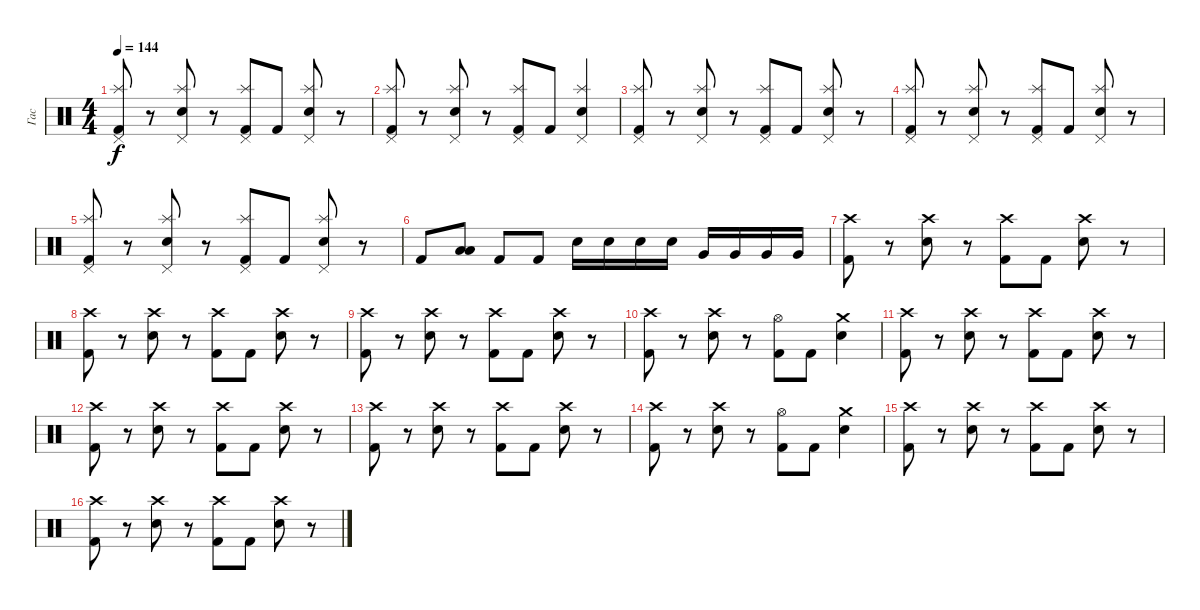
\track ("Гас" "Гас") {instrument percussion}
\staff {score}
\articulation defaults
\ts (4 4)
\tempo 144
\clef neutral
\ks c
("Pedal Hi-Hat (hit)" "Splash (hit)" "Kick (hit) 2").8{dy f} r.8 ("Pedal Hi-Hat (hit)" "Splash (hit)" "Electric Snare (hit)").8 r.8 ("Pedal Hi-Hat (hit)" "Splash (hit)" "Kick (hit) 2").8 "Kick (hit) 2".8 ("Pedal Hi-Hat (hit)" "Splash (hit)" "Electric Snare (hit)").8 r.8 |
("Pedal Hi-Hat (hit)" "Splash (hit)" "Kick (hit) 2").8 r.8 ("Pedal Hi-Hat (hit)" "Splash (hit)" "Electric Snare (hit)").8 r.8 ("Pedal Hi-Hat (hit)" "Splash (hit)" "Kick (hit) 2").8 "Kick (hit) 2".8 ("Pedal Hi-Hat (hit)" "Splash (hit)" "Electric Snare (hit)").4 |
("Pedal Hi-Hat (hit)" "Splash (hit)" "Kick (hit) 2").8 r.8 ("Pedal Hi-Hat (hit)" "Splash (hit)" "Electric Snare (hit)").8 r.8 ("Pedal Hi-Hat (hit)" "Splash (hit)" "Kick (hit) 2").8 "Kick (hit) 2".8 ("Pedal Hi-Hat (hit)" "Splash (hit)" "Electric Snare (hit)").8 r.8 |
("Pedal Hi-Hat (hit)" "Splash (hit)" "Kick (hit) 2").8 r.8 ("Pedal Hi-Hat (hit)" "Splash (hit)" "Electric Snare (hit)").8 r.8 ("Pedal Hi-Hat (hit)" "Splash (hit)" "Kick (hit) 2").8 "Kick (hit) 2".8 ("Pedal Hi-Hat (hit)" "Splash (hit)" "Electric Snare (hit)").8 r.8 |
("Pedal Hi-Hat (hit)" "Splash (hit)" "Kick (hit) 2").8 r.8 ("Pedal Hi-Hat (hit)" "Splash (hit)" "Electric Snare (hit)").8 r.8 ("Pedal Hi-Hat (hit)" "Splash (hit)" "Kick (hit) 2").8 "Kick (hit) 2".8 ("Pedal Hi-Hat (hit)" "Splash (hit)" "Electric Snare (hit)").8 r.8 |
"Kick (hit) 2".8 ("Low Tom (hit)" "Low Tom (hit)").8 "Kick (hit) 2".8 "Kick (hit) 2".8 "Electric Snare (hit)".16 "Electric Snare (hit)".16 "Electric Snare (hit)".16 "Electric Snare (hit)".16 "Very Low Tom (hit)".16 "Very Low Tom (hit)".16 "Very Low Tom (hit)".16 "Very Low Tom (hit)".16 |
("Crash high (hit)" "Kick (hit) 2").8 r.8 ("Crash high (hit)" "Electric Snare (hit)").8 r.8 ("Crash high (hit)" "Kick (hit) 2").8 "Kick (hit) 2".8 ("Crash high (hit)" "Electric Snare (hit)").8 r.8 |
("Crash high (hit)" "Kick (hit) 2").8 r.8 ("Crash high (hit)" "Electric Snare (hit)").8 r.8 ("Crash high (hit)" "Kick (hit) 2").8 "Kick (hit) 2".8 ("Crash high (hit)" "Electric Snare (hit)").8 r.8 |
("Crash high (hit)" "Kick (hit) 2").8 r.8 ("Crash high (hit)" "Electric Snare (hit)").8 r.8 ("Crash high (hit)" "Kick (hit) 2").8 "Kick (hit) 2".8 ("Crash high (hit)" "Electric Snare (hit)").8 r.8 |
("Crash high (hit)" "Kick (hit) 2").8 r.8 ("Crash high (hit)" "Electric Snare (hit)").8 r.8 ("Hi-Hat (open)" "Kick (hit) 2").8 "Kick (hit) 2".8 ("Crash medium (hit)" "Electric Snare (hit)").4 |
("Crash high (hit)" "Kick (hit) 2").8 r.8 ("Crash high (hit)" "Electric Snare (hit)").8 r.8 ("Crash high (hit)" "Kick (hit) 2").8 "Kick (hit) 2".8 ("Crash high (hit)" "Electric Snare (hit)").8 r.8 |
("Crash high (hit)" "Kick (hit) 2").8 r.8 ("Crash high (hit)" "Electric Snare (hit)").8 r.8 ("Crash high (hit)" "Kick (hit) 2").8 "Kick (hit) 2".8 ("Crash high (hit)" "Electric Snare (hit)").8 r.8 |
("Crash high (hit)" "Kick (hit) 2").8 r.8 ("Crash high (hit)" "Electric Snare (hit)").8 r.8 ("Crash high (hit)" "Kick (hit) 2").8 "Kick (hit) 2".8 ("Crash high (hit)" "Electric Snare (hit)").8 r.8 |
("Crash high (hit)" "Kick (hit) 2").8 r.8 ("Crash high (hit)" "Electric Snare (hit)").8 r.8 ("Hi-Hat (open)" "Kick (hit) 2").8 "Kick (hit) 2".8 ("Crash medium (hit)" "Electric Snare (hit)").4 |
("Crash high (hit)" "Kick (hit) 2").8 r.8 ("Crash high (hit)" "Electric Snare (hit)").8 r.8 ("Crash high (hit)" "Kick (hit) 2").8 "Kick (hit) 2".8 ("Crash high (hit)" "Electric Snare (hit)").8 r.8 |
("Crash high (hit)" "Kick (hit) 2").8 r.8 ("Crash high (hit)" "Electric Snare (hit)").8 r.8 ("Crash high (hit)" "Kick (hit) 2").8 "Kick (hit) 2".8 ("Crash high (hit)" "Electric Snare (hit)").8 r.8
